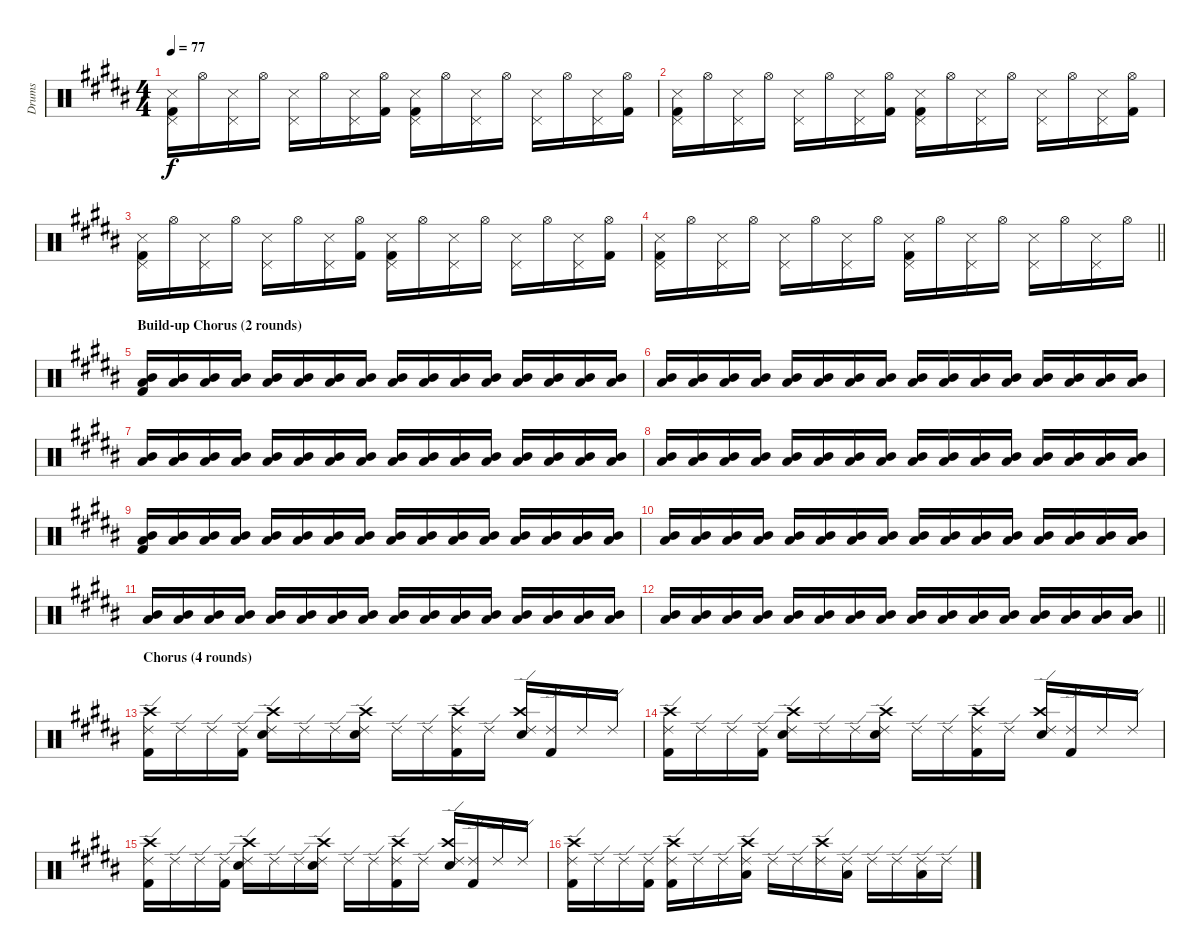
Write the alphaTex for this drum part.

\track ("Drums" "Drums") {instrument percussion}
\staff {score}
\articulation defaults
\ts (4 4)
\tempo 77
\clef neutral
\ks g#minor
("Kick (hit) 2" "Pedal Hi-Hat (hit)" "Snare (side stick) 3").16{dy f} "Hi-Hat (open)".16 ("Pedal Hi-Hat (hit)" "Snare (side stick) 3").16 "Hi-Hat (open)".16 ("Pedal Hi-Hat (hit)" "Snare (side stick) 3").16 "Hi-Hat (open)".16 ("Pedal Hi-Hat (hit)" "Snare (side stick) 3").16 ("Kick (hit) 2" "Hi-Hat (open)").16 ("Kick (hit) 2" "Pedal Hi-Hat (hit)" "Snare (side stick) 3").16 "Hi-Hat (open)".16 ("Pedal Hi-Hat (hit)" "Snare (side stick) 3").16 "Hi-Hat (open)".16 ("Pedal Hi-Hat (hit)" "Snare (side stick) 3").16 "Hi-Hat (open)".16 ("Pedal Hi-Hat (hit)" "Snare (side stick) 3").16 ("Kick (hit) 2" "Hi-Hat (open)").16 |
("Kick (hit) 2" "Pedal Hi-Hat (hit)" "Snare (side stick) 3").16 "Hi-Hat (open)".16 ("Pedal Hi-Hat (hit)" "Snare (side stick) 3").16 "Hi-Hat (open)".16 ("Pedal Hi-Hat (hit)" "Snare (side stick) 3").16 "Hi-Hat (open)".16 ("Pedal Hi-Hat (hit)" "Snare (side stick) 3").16 ("Kick (hit) 2" "Hi-Hat (open)").16 ("Kick (hit) 2" "Pedal Hi-Hat (hit)" "Snare (side stick) 3").16 "Hi-Hat (open)".16 ("Pedal Hi-Hat (hit)" "Snare (side stick) 3").16 "Hi-Hat (open)".16 ("Pedal Hi-Hat (hit)" "Snare (side stick) 3").16 "Hi-Hat (open)".16 ("Pedal Hi-Hat (hit)" "Snare (side stick) 3").16 ("Kick (hit) 2" "Hi-Hat (open)").16 |
("Kick (hit) 2" "Pedal Hi-Hat (hit)" "Snare (side stick) 3").16 "Hi-Hat (open)".16 ("Pedal Hi-Hat (hit)" "Snare (side stick) 3").16 "Hi-Hat (open)".16 ("Pedal Hi-Hat (hit)" "Snare (side stick) 3").16 "Hi-Hat (open)".16 ("Pedal Hi-Hat (hit)" "Snare (side stick) 3").16 ("Kick (hit) 2" "Hi-Hat (open)").16 ("Kick (hit) 2" "Pedal Hi-Hat (hit)" "Snare (side stick) 3").16 "Hi-Hat (open)".16 ("Pedal Hi-Hat (hit)" "Snare (side stick) 3").16 "Hi-Hat (open)".16 ("Pedal Hi-Hat (hit)" "Snare (side stick) 3").16 "Hi-Hat (open)".16 ("Pedal Hi-Hat (hit)" "Snare (side stick) 3").16 ("Kick (hit) 2" "Hi-Hat (open)").16 |
\barLineRight lightlight
("Kick (hit) 2" "Pedal Hi-Hat (hit)" "Snare (side stick) 3").16 "Hi-Hat (open)".16 ("Pedal Hi-Hat (hit)" "Snare (side stick) 3").16 "Hi-Hat (open)".16 ("Pedal Hi-Hat (hit)" "Snare (side stick) 3").16 "Hi-Hat (open)".16 ("Pedal Hi-Hat (hit)" "Snare (side stick) 3").16 "Hi-Hat (open)".16 ("Kick (hit) 2" "Pedal Hi-Hat (hit)" "Snare (side stick) 3").16 "Hi-Hat (open)".16 ("Pedal Hi-Hat (hit)" "Snare (side stick) 3").16 "Hi-Hat (open)".16 ("Pedal Hi-Hat (hit)" "Snare (side stick) 3").16 "Hi-Hat (open)".16 ("Pedal Hi-Hat (hit)" "Snare (side stick) 3").16 "Hi-Hat (open)".16 |
\section ("" "Build-up Chorus (2 rounds)")
("Kick (hit) 2" "Mid Tom (hit)" "Low Tom (hit)").16 ("Mid Tom (hit)" "Low Tom (hit)").16 ("Mid Tom (hit)" "Low Tom (hit)").16 ("Mid Tom (hit)" "Low Tom (hit)").16 ("Mid Tom (hit)" "Low Tom (hit)").16 ("Mid Tom (hit)" "Low Tom (hit)").16 ("Mid Tom (hit)" "Low Tom (hit)").16 ("Mid Tom (hit)" "Low Tom (hit)").16 ("Mid Tom (hit)" "Low Tom (hit)").16 ("Mid Tom (hit)" "Low Tom (hit)").16 ("Mid Tom (hit)" "Low Tom (hit)").16 ("Mid Tom (hit)" "Low Tom (hit)").16 ("Mid Tom (hit)" "Low Tom (hit)").16 ("Mid Tom (hit)" "Low Tom (hit)").16 ("Mid Tom (hit)" "Low Tom (hit)").16 ("Mid Tom (hit)" "Low Tom (hit)").16 |
("Mid Tom (hit)" "Low Tom (hit)").16 ("Mid Tom (hit)" "Low Tom (hit)").16 ("Mid Tom (hit)" "Low Tom (hit)").16 ("Mid Tom (hit)" "Low Tom (hit)").16 ("Mid Tom (hit)" "Low Tom (hit)").16 ("Mid Tom (hit)" "Low Tom (hit)").16 ("Mid Tom (hit)" "Low Tom (hit)").16 ("Mid Tom (hit)" "Low Tom (hit)").16 ("Mid Tom (hit)" "Low Tom (hit)").16 ("Mid Tom (hit)" "Low Tom (hit)").16 ("Mid Tom (hit)" "Low Tom (hit)").16 ("Mid Tom (hit)" "Low Tom (hit)").16 ("Mid Tom (hit)" "Low Tom (hit)").16 ("Mid Tom (hit)" "Low Tom (hit)").16 ("Mid Tom (hit)" "Low Tom (hit)").16 ("Mid Tom (hit)" "Low Tom (hit)").16 |
("Mid Tom (hit)" "Low Tom (hit)").16 ("Mid Tom (hit)" "Low Tom (hit)").16 ("Mid Tom (hit)" "Low Tom (hit)").16 ("Mid Tom (hit)" "Low Tom (hit)").16 ("Mid Tom (hit)" "Low Tom (hit)").16 ("Mid Tom (hit)" "Low Tom (hit)").16 ("Mid Tom (hit)" "Low Tom (hit)").16 ("Mid Tom (hit)" "Low Tom (hit)").16 ("Mid Tom (hit)" "Low Tom (hit)").16 ("Mid Tom (hit)" "Low Tom (hit)").16 ("Mid Tom (hit)" "Low Tom (hit)").16 ("Mid Tom (hit)" "Low Tom (hit)").16 ("Mid Tom (hit)" "Low Tom (hit)").16 ("Mid Tom (hit)" "Low Tom (hit)").16 ("Mid Tom (hit)" "Low Tom (hit)").16 ("Mid Tom (hit)" "Low Tom (hit)").16 |
("Mid Tom (hit)" "Low Tom (hit)").16 ("Mid Tom (hit)" "Low Tom (hit)").16 ("Mid Tom (hit)" "Low Tom (hit)").16 ("Mid Tom (hit)" "Low Tom (hit)").16 ("Mid Tom (hit)" "Low Tom (hit)").16 ("Mid Tom (hit)" "Low Tom (hit)").16 ("Mid Tom (hit)" "Low Tom (hit)").16 ("Mid Tom (hit)" "Low Tom (hit)").16 ("Mid Tom (hit)" "Low Tom (hit)").16 ("Mid Tom (hit)" "Low Tom (hit)").16 ("Mid Tom (hit)" "Low Tom (hit)").16 ("Mid Tom (hit)" "Low Tom (hit)").16 ("Mid Tom (hit)" "Low Tom (hit)").16 ("Mid Tom (hit)" "Low Tom (hit)").16 ("Mid Tom (hit)" "Low Tom (hit)").16 ("Mid Tom (hit)" "Low Tom (hit)").16 |
("Kick (hit) 2" "Mid Tom (hit)" "Low Tom (hit)").16 ("Mid Tom (hit)" "Low Tom (hit)").16 ("Mid Tom (hit)" "Low Tom (hit)").16 ("Mid Tom (hit)" "Low Tom (hit)").16 ("Mid Tom (hit)" "Low Tom (hit)").16 ("Mid Tom (hit)" "Low Tom (hit)").16 ("Mid Tom (hit)" "Low Tom (hit)").16 ("Mid Tom (hit)" "Low Tom (hit)").16 ("Mid Tom (hit)" "Low Tom (hit)").16 ("Mid Tom (hit)" "Low Tom (hit)").16 ("Mid Tom (hit)" "Low Tom (hit)").16 ("Mid Tom (hit)" "Low Tom (hit)").16 ("Mid Tom (hit)" "Low Tom (hit)").16 ("Mid Tom (hit)" "Low Tom (hit)").16 ("Mid Tom (hit)" "Low Tom (hit)").16 ("Mid Tom (hit)" "Low Tom (hit)").16 |
("Mid Tom (hit)" "Low Tom (hit)").16 ("Mid Tom (hit)" "Low Tom (hit)").16 ("Mid Tom (hit)" "Low Tom (hit)").16 ("Mid Tom (hit)" "Low Tom (hit)").16 ("Mid Tom (hit)" "Low Tom (hit)").16 ("Mid Tom (hit)" "Low Tom (hit)").16 ("Mid Tom (hit)" "Low Tom (hit)").16 ("Mid Tom (hit)" "Low Tom (hit)").16 ("Mid Tom (hit)" "Low Tom (hit)").16 ("Mid Tom (hit)" "Low Tom (hit)").16 ("Mid Tom (hit)" "Low Tom (hit)").16 ("Mid Tom (hit)" "Low Tom (hit)").16 ("Mid Tom (hit)" "Low Tom (hit)").16 ("Mid Tom (hit)" "Low Tom (hit)").16 ("Mid Tom (hit)" "Low Tom (hit)").16 ("Mid Tom (hit)" "Low Tom (hit)").16 |
("Mid Tom (hit)" "Low Tom (hit)").16 ("Mid Tom (hit)" "Low Tom (hit)").16 ("Mid Tom (hit)" "Low Tom (hit)").16 ("Mid Tom (hit)" "Low Tom (hit)").16 ("Mid Tom (hit)" "Low Tom (hit)").16 ("Mid Tom (hit)" "Low Tom (hit)").16 ("Mid Tom (hit)" "Low Tom (hit)").16 ("Mid Tom (hit)" "Low Tom (hit)").16 ("Mid Tom (hit)" "Low Tom (hit)").16 ("Mid Tom (hit)" "Low Tom (hit)").16 ("Mid Tom (hit)" "Low Tom (hit)").16 ("Mid Tom (hit)" "Low Tom (hit)").16 ("Mid Tom (hit)" "Low Tom (hit)").16 ("Mid Tom (hit)" "Low Tom (hit)").16 ("Mid Tom (hit)" "Low Tom (hit)").16 ("Mid Tom (hit)" "Low Tom (hit)").16 |
\barLineRight lightlight
("Mid Tom (hit)" "Low Tom (hit)").16 ("Mid Tom (hit)" "Low Tom (hit)").16 ("Mid Tom (hit)" "Low Tom (hit)").16 ("Mid Tom (hit)" "Low Tom (hit)").16 ("Mid Tom (hit)" "Low Tom (hit)").16 ("Mid Tom (hit)" "Low Tom (hit)").16 ("Mid Tom (hit)" "Low Tom (hit)").16 ("Mid Tom (hit)" "Low Tom (hit)").16 ("Mid Tom (hit)" "Low Tom (hit)").16 ("Mid Tom (hit)" "Low Tom (hit)").16 ("Mid Tom (hit)" "Low Tom (hit)").16 ("Mid Tom (hit)" "Low Tom (hit)").16 ("Mid Tom (hit)" "Low Tom (hit)").16 ("Mid Tom (hit)" "Low Tom (hit)").16 ("Mid Tom (hit)" "Low Tom (hit)").16 ("Mid Tom (hit)" "Low Tom (hit)").16 |
\section ("" "Chorus (4 rounds)")
("Kick (hit) 2" "Ride (edge) 2" "Crash high (hit)").16 "Ride (edge) 2".16 "Ride (edge) 2".16 ("Kick (hit) 2" "Ride (edge) 2").16 ("Ride (edge) 2" "Snare (hit) 2" "Crash high (hit)").16 "Ride (edge) 2".16 "Ride (edge) 2".16 ("Ride (edge) 2" "Snare (hit) 2" "Crash high (hit)").16 "Ride (edge) 2".16 "Ride (edge) 2".16 ("Kick (hit) 2" "Ride (edge) 2" "Crash high (hit)").16 "Ride (edge) 2".16 ("Ride (edge) 2" "Snare (hit) 2" "Crash high (hit)").16 ("Kick (hit) 2" "Ride (edge) 2").16 "Ride (edge) 2".16 "Ride (edge) 2".16 |
("Kick (hit) 2" "Ride (edge) 2" "Crash high (hit)").16 "Ride (edge) 2".16 "Ride (edge) 2".16 ("Kick (hit) 2" "Ride (edge) 2").16 ("Ride (edge) 2" "Snare (hit) 2" "Crash high (hit)").16 "Ride (edge) 2".16 "Ride (edge) 2".16 ("Ride (edge) 2" "Snare (hit) 2" "Crash high (hit)").16 "Ride (edge) 2".16 "Ride (edge) 2".16 ("Kick (hit) 2" "Ride (edge) 2" "Crash high (hit)").16 "Ride (edge) 2".16 ("Ride (edge) 2" "Snare (hit) 2" "Crash high (hit)").16 ("Kick (hit) 2" "Ride (edge) 2").16 "Ride (edge) 2".16 "Ride (edge) 2".16 |
("Kick (hit) 2" "Ride (edge) 2" "Crash high (hit)").16 "Ride (edge) 2".16 "Ride (edge) 2".16 ("Kick (hit) 2" "Ride (edge) 2").16 ("Ride (edge) 2" "Snare (hit) 2" "Crash high (hit)").16 "Ride (edge) 2".16 "Ride (edge) 2".16 ("Ride (edge) 2" "Snare (hit) 2" "Crash high (hit)").16 "Ride (edge) 2".16 "Ride (edge) 2".16 ("Kick (hit) 2" "Ride (edge) 2" "Crash high (hit)").16 "Ride (edge) 2".16 ("Ride (edge) 2" "Snare (hit) 2" "Crash high (hit)").16 ("Kick (hit) 2" "Ride (edge) 2").16 "Ride (edge) 2".16 "Ride (edge) 2".16 |
("Kick (hit) 2" "Ride (edge) 2" "Crash high (hit)").16 "Ride (edge) 2".16 "Ride (edge) 2".16 ("Kick (hit) 2" "Ride (edge) 2").16 ("Ride (edge) 2" "Crash high (hit)" "Kick (hit) 2").16 "Ride (edge) 2".16 "Ride (edge) 2".16 ("Ride (edge) 2" "Low Tom (hit)" "Crash high (hit)").16 "Ride (edge) 2".16 "Ride (edge) 2".16 ("Ride (edge) 2" "Crash high (hit)").16 ("Ride (edge) 2" "Low Tom (hit)").16 "Ride (edge) 2".16 "Ride (edge) 2".16 ("Ride (edge) 2" "Low Tom (hit)").16 "Ride (edge) 2".16
